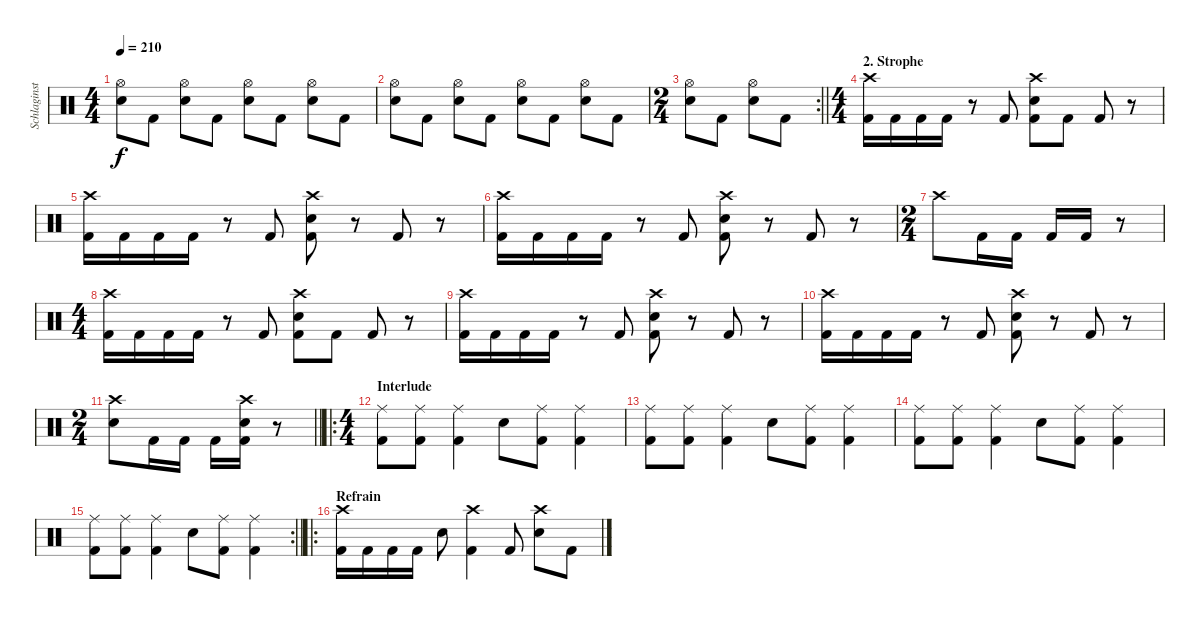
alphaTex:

\track ("Schlaginstrumente - Auswahl" "Schlaginst") {instrument percussion}
\staff {score}
\articulation defaults
\ts (4 4)
\tempo 210
\clef neutral
\ks c
("Hi-Hat (open)" "Snare (hit) 2").8{dy f} "Kick (hit) 2".8 ("Hi-Hat (open)" "Snare (hit) 2").8 "Kick (hit) 2".8 ("Hi-Hat (open)" "Snare (hit) 2").8 "Kick (hit) 2".8 ("Hi-Hat (open)" "Snare (hit) 2").8 "Kick (hit) 2".8 |
("Hi-Hat (open)" "Snare (hit) 2").8 "Kick (hit) 2".8 ("Hi-Hat (open)" "Snare (hit) 2").8 "Kick (hit) 2".8 ("Hi-Hat (open)" "Snare (hit) 2").8 "Kick (hit) 2".8 ("Hi-Hat (open)" "Snare (hit) 2").8 "Kick (hit) 2".8 |
\rc 2
\ts (2 4)
\barLineRight lightlight
("Hi-Hat (open)" "Snare (hit) 2").8 "Kick (hit) 2".8 ("Hi-Hat (open)" "Snare (hit) 2").8 "Kick (hit) 2".8 |
\ts (4 4)
\section ("" "2. Strophe")
("Crash high (hit)" "Kick (hit) 2").16 "Kick (hit) 2".16 "Kick (hit) 2".16 "Kick (hit) 2".16 r.8 "Kick (hit) 2".8 ("Crash high (hit)" "Snare (hit) 2" "Kick (hit) 2").8 "Kick (hit) 2".8 "Kick (hit) 2".8 r.8 |
("Crash high (hit)" "Kick (hit) 2").16 "Kick (hit) 2".16 "Kick (hit) 2".16 "Kick (hit) 2".16 r.8 "Kick (hit) 2".8 ("Crash high (hit)" "Snare (hit) 2" "Kick (hit) 2").8 r.8 "Kick (hit) 2".8 r.8 |
("Crash high (hit)" "Kick (hit) 2").16 "Kick (hit) 2".16 "Kick (hit) 2".16 "Kick (hit) 2".16 r.8 "Kick (hit) 2".8 ("Crash high (hit)" "Snare (hit) 2" "Kick (hit) 2").8 r.8 "Kick (hit) 2".8 r.8 |
\ts (2 4)
"Crash high (hit)".8 "Kick (hit) 2".16 "Kick (hit) 2".16 "Kick (hit) 2".16 "Kick (hit) 2".16 r.8 |
\ts (4 4)
("Crash high (hit)" "Kick (hit) 2").16 "Kick (hit) 2".16 "Kick (hit) 2".16 "Kick (hit) 2".16 r.8 "Kick (hit) 2".8 ("Crash high (hit)" "Snare (hit) 2" "Kick (hit) 2").8 "Kick (hit) 2".8 "Kick (hit) 2".8 r.8 |
("Crash high (hit)" "Kick (hit) 2").16 "Kick (hit) 2".16 "Kick (hit) 2".16 "Kick (hit) 2".16 r.8 "Kick (hit) 2".8 ("Crash high (hit)" "Snare (hit) 2" "Kick (hit) 2").8 r.8 "Kick (hit) 2".8 r.8 |
("Crash high (hit)" "Kick (hit) 2").16 "Kick (hit) 2".16 "Kick (hit) 2".16 "Kick (hit) 2".16 r.8 "Kick (hit) 2".8 ("Crash high (hit)" "Snare (hit) 2" "Kick (hit) 2").8 r.8 "Kick (hit) 2".8 r.8 |
\ts (2 4)
\barLineRight lightlight
("Crash high (hit)" "Snare (hit) 2").8 "Kick (hit) 2".16 "Kick (hit) 2".16 "Kick (hit) 2".16 ("Crash high (hit)" "Snare (hit) 2" "Kick (hit) 2").16 r.8 |
\ro
\ts (4 4)
\section ("" "Interlude")
("Ride (middle)" "Kick (hit) 2").8 ("Ride (middle)" "Kick (hit) 2").8 ("Ride (middle)" "Kick (hit) 2").4 "Snare (hit) 2".8 ("Ride (middle)" "Kick (hit) 2").8 ("Ride (middle)" "Kick (hit) 2").4 |
("Ride (middle)" "Kick (hit) 2").8 ("Ride (middle)" "Kick (hit) 2").8 ("Ride (middle)" "Kick (hit) 2").4 "Snare (hit) 2".8 ("Ride (middle)" "Kick (hit) 2").8 ("Ride (middle)" "Kick (hit) 2").4 |
("Ride (middle)" "Kick (hit) 2").8 ("Ride (middle)" "Kick (hit) 2").8 ("Ride (middle)" "Kick (hit) 2").4 "Snare (hit) 2".8 ("Ride (middle)" "Kick (hit) 2").8 ("Ride (middle)" "Kick (hit) 2").4 |
\rc 2
\barLineRight lightlight
("Ride (middle)" "Kick (hit) 2").8 ("Ride (middle)" "Kick (hit) 2").8 ("Ride (middle)" "Kick (hit) 2").4 "Snare (hit) 2".8 ("Ride (middle)" "Kick (hit) 2").8 ("Ride (middle)" "Kick (hit) 2").4 |
\ro
\section ("" "Refrain")
("Crash high (hit)" "Kick (hit) 2").16 "Kick (hit) 2".16 "Kick (hit) 2".16 "Kick (hit) 2".16 "Snare (hit) 2".8 ("Crash high (hit)" "Kick (hit) 2").4 "Kick (hit) 2".8 ("Crash high (hit)" "Snare (hit) 2").8 "Kick (hit) 2".8
